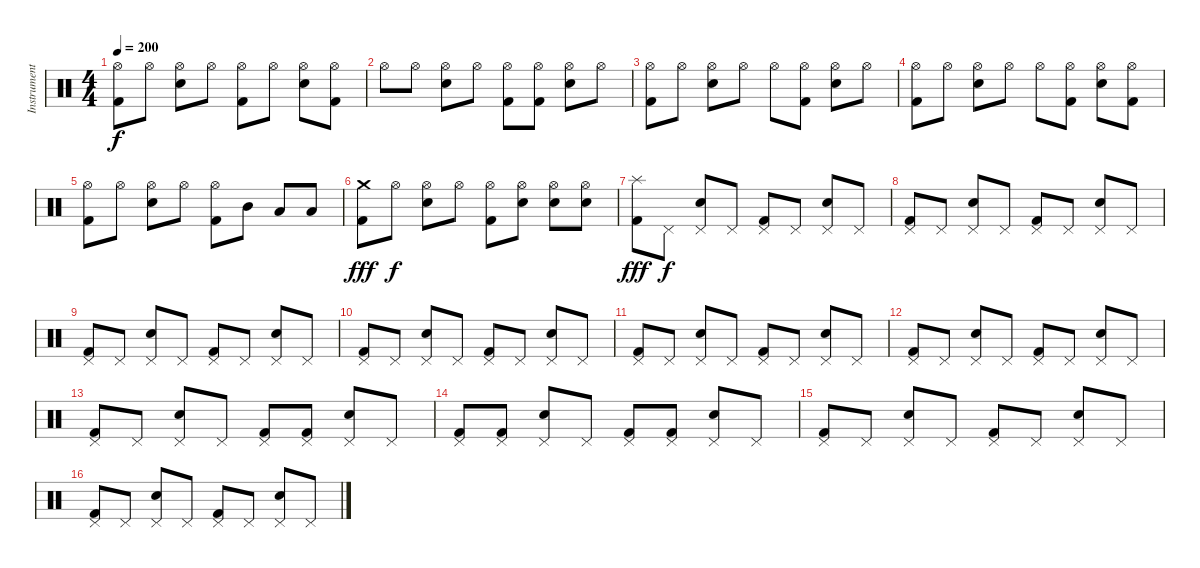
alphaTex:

\track ("Instrument 03" "Instrument") {instrument percussion}
\staff {score}
\articulation defaults
\ts (4 4)
\tempo 200
\clef neutral
\ks c
("Kick (hit) 2" "Hi-Hat (open)").8{dy f} "Hi-Hat (open)".8 ("Snare (hit) 2" "Hi-Hat (open)").8 "Hi-Hat (open)".8 ("Kick (hit) 2" "Hi-Hat (open)").8 "Hi-Hat (open)".8 ("Snare (hit) 2" "Hi-Hat (open)").8 ("Kick (hit) 2" "Hi-Hat (open)").8 |
"Hi-Hat (open)".8 "Hi-Hat (open)".8 ("Snare (hit) 2" "Hi-Hat (open)").8 "Hi-Hat (open)".8 ("Kick (hit) 2" "Hi-Hat (open)").8 ("Kick (hit) 2" "Hi-Hat (open)").8 ("Snare (hit) 2" "Hi-Hat (open)").8 "Hi-Hat (open)".8 |
("Kick (hit) 2" "Hi-Hat (open)").8 "Hi-Hat (open)".8 ("Snare (hit) 2" "Hi-Hat (open)").8 "Hi-Hat (open)".8 "Hi-Hat (open)".8 ("Kick (hit) 2" "Hi-Hat (open)").8 ("Snare (hit) 2" "Hi-Hat (open)").8 "Hi-Hat (open)".8 |
("Kick (hit) 2" "Hi-Hat (open)").8 "Hi-Hat (open)".8 ("Snare (hit) 2" "Hi-Hat (open)").8 "Hi-Hat (open)".8 "Hi-Hat (open)".8 ("Kick (hit) 2" "Hi-Hat (open)").8 ("Snare (hit) 2" "Hi-Hat (open)").8 ("Kick (hit) 2" "Hi-Hat (open)").8 |
("Kick (hit) 2" "Hi-Hat (open)").8 "Hi-Hat (open)".8 ("Snare (hit) 2" "Hi-Hat (open)").8 "Hi-Hat (open)".8 ("Kick (hit) 2" "Hi-Hat (open)").8 "Mid Tom (hit)".8 "Low Tom (hit)".8 "Low Tom (hit)".8 |
("Kick (hit) 2" "Crash medium (hit)").8{dy fff} "Hi-Hat (open)".8{dy f} ("Snare (hit) 2" "Hi-Hat (open)").8 "Hi-Hat (open)".8 ("Kick (hit) 2" "Hi-Hat (open)").8 ("Snare (hit) 2" "Hi-Hat (open)").8 ("Snare (hit) 2" "Hi-Hat (open)").8 ("Snare (hit) 2" "Hi-Hat (open)").8 |
("Kick (hit) 2" "Splash (hit)").8{dy fff} "Pedal Hi-Hat (hit)".8{dy f} ("Snare (hit) 2" "Pedal Hi-Hat (hit)").8 "Pedal Hi-Hat (hit)".8 ("Kick (hit) 2" "Pedal Hi-Hat (hit)").8 "Pedal Hi-Hat (hit)".8 ("Snare (hit) 2" "Pedal Hi-Hat (hit)").8 "Pedal Hi-Hat (hit)".8 |
("Kick (hit) 2" "Pedal Hi-Hat (hit)").8 "Pedal Hi-Hat (hit)".8 ("Snare (hit) 2" "Pedal Hi-Hat (hit)").8 "Pedal Hi-Hat (hit)".8 ("Kick (hit) 2" "Pedal Hi-Hat (hit)").8 "Pedal Hi-Hat (hit)".8 ("Snare (hit) 2" "Pedal Hi-Hat (hit)").8 "Pedal Hi-Hat (hit)".8 |
("Kick (hit) 2" "Pedal Hi-Hat (hit)").8 "Pedal Hi-Hat (hit)".8 ("Snare (hit) 2" "Pedal Hi-Hat (hit)").8 "Pedal Hi-Hat (hit)".8 ("Kick (hit) 2" "Pedal Hi-Hat (hit)").8 "Pedal Hi-Hat (hit)".8 ("Snare (hit) 2" "Pedal Hi-Hat (hit)").8 "Pedal Hi-Hat (hit)".8 |
("Kick (hit) 2" "Pedal Hi-Hat (hit)").8 "Pedal Hi-Hat (hit)".8 ("Snare (hit) 2" "Pedal Hi-Hat (hit)").8 "Pedal Hi-Hat (hit)".8 ("Kick (hit) 2" "Pedal Hi-Hat (hit)").8 "Pedal Hi-Hat (hit)".8 ("Snare (hit) 2" "Pedal Hi-Hat (hit)").8 "Pedal Hi-Hat (hit)".8 |
("Kick (hit) 2" "Pedal Hi-Hat (hit)").8 "Pedal Hi-Hat (hit)".8 ("Snare (hit) 2" "Pedal Hi-Hat (hit)").8 "Pedal Hi-Hat (hit)".8 ("Kick (hit) 2" "Pedal Hi-Hat (hit)").8 "Pedal Hi-Hat (hit)".8 ("Snare (hit) 2" "Pedal Hi-Hat (hit)").8 "Pedal Hi-Hat (hit)".8 |
("Kick (hit) 2" "Pedal Hi-Hat (hit)").8 "Pedal Hi-Hat (hit)".8 ("Snare (hit) 2" "Pedal Hi-Hat (hit)").8 "Pedal Hi-Hat (hit)".8 ("Kick (hit) 2" "Pedal Hi-Hat (hit)").8 "Pedal Hi-Hat (hit)".8 ("Snare (hit) 2" "Pedal Hi-Hat (hit)").8 "Pedal Hi-Hat (hit)".8 |
("Kick (hit) 2" "Pedal Hi-Hat (hit)").8 "Pedal Hi-Hat (hit)".8 ("Snare (hit) 2" "Pedal Hi-Hat (hit)").8 "Pedal Hi-Hat (hit)".8 ("Kick (hit) 2" "Pedal Hi-Hat (hit)").8 ("Kick (hit) 2" "Pedal Hi-Hat (hit)").8 ("Snare (hit) 2" "Pedal Hi-Hat (hit)").8 "Pedal Hi-Hat (hit)".8 |
("Kick (hit) 2" "Pedal Hi-Hat (hit)").8 ("Kick (hit) 2" "Pedal Hi-Hat (hit)").8 ("Snare (hit) 2" "Pedal Hi-Hat (hit)").8 "Pedal Hi-Hat (hit)".8 ("Kick (hit) 2" "Pedal Hi-Hat (hit)").8 ("Kick (hit) 2" "Pedal Hi-Hat (hit)").8 ("Snare (hit) 2" "Pedal Hi-Hat (hit)").8 "Pedal Hi-Hat (hit)".8 |
("Kick (hit) 2" "Pedal Hi-Hat (hit)").8 "Pedal Hi-Hat (hit)".8 ("Snare (hit) 2" "Pedal Hi-Hat (hit)").8 "Pedal Hi-Hat (hit)".8 ("Kick (hit) 2" "Pedal Hi-Hat (hit)").8 "Pedal Hi-Hat (hit)".8 ("Snare (hit) 2" "Pedal Hi-Hat (hit)").8 "Pedal Hi-Hat (hit)".8 |
("Kick (hit) 2" "Pedal Hi-Hat (hit)").8 "Pedal Hi-Hat (hit)".8 ("Snare (hit) 2" "Pedal Hi-Hat (hit)").8 "Pedal Hi-Hat (hit)".8 ("Kick (hit) 2" "Pedal Hi-Hat (hit)").8 "Pedal Hi-Hat (hit)".8 ("Snare (hit) 2" "Pedal Hi-Hat (hit)").8 "Pedal Hi-Hat (hit)".8
